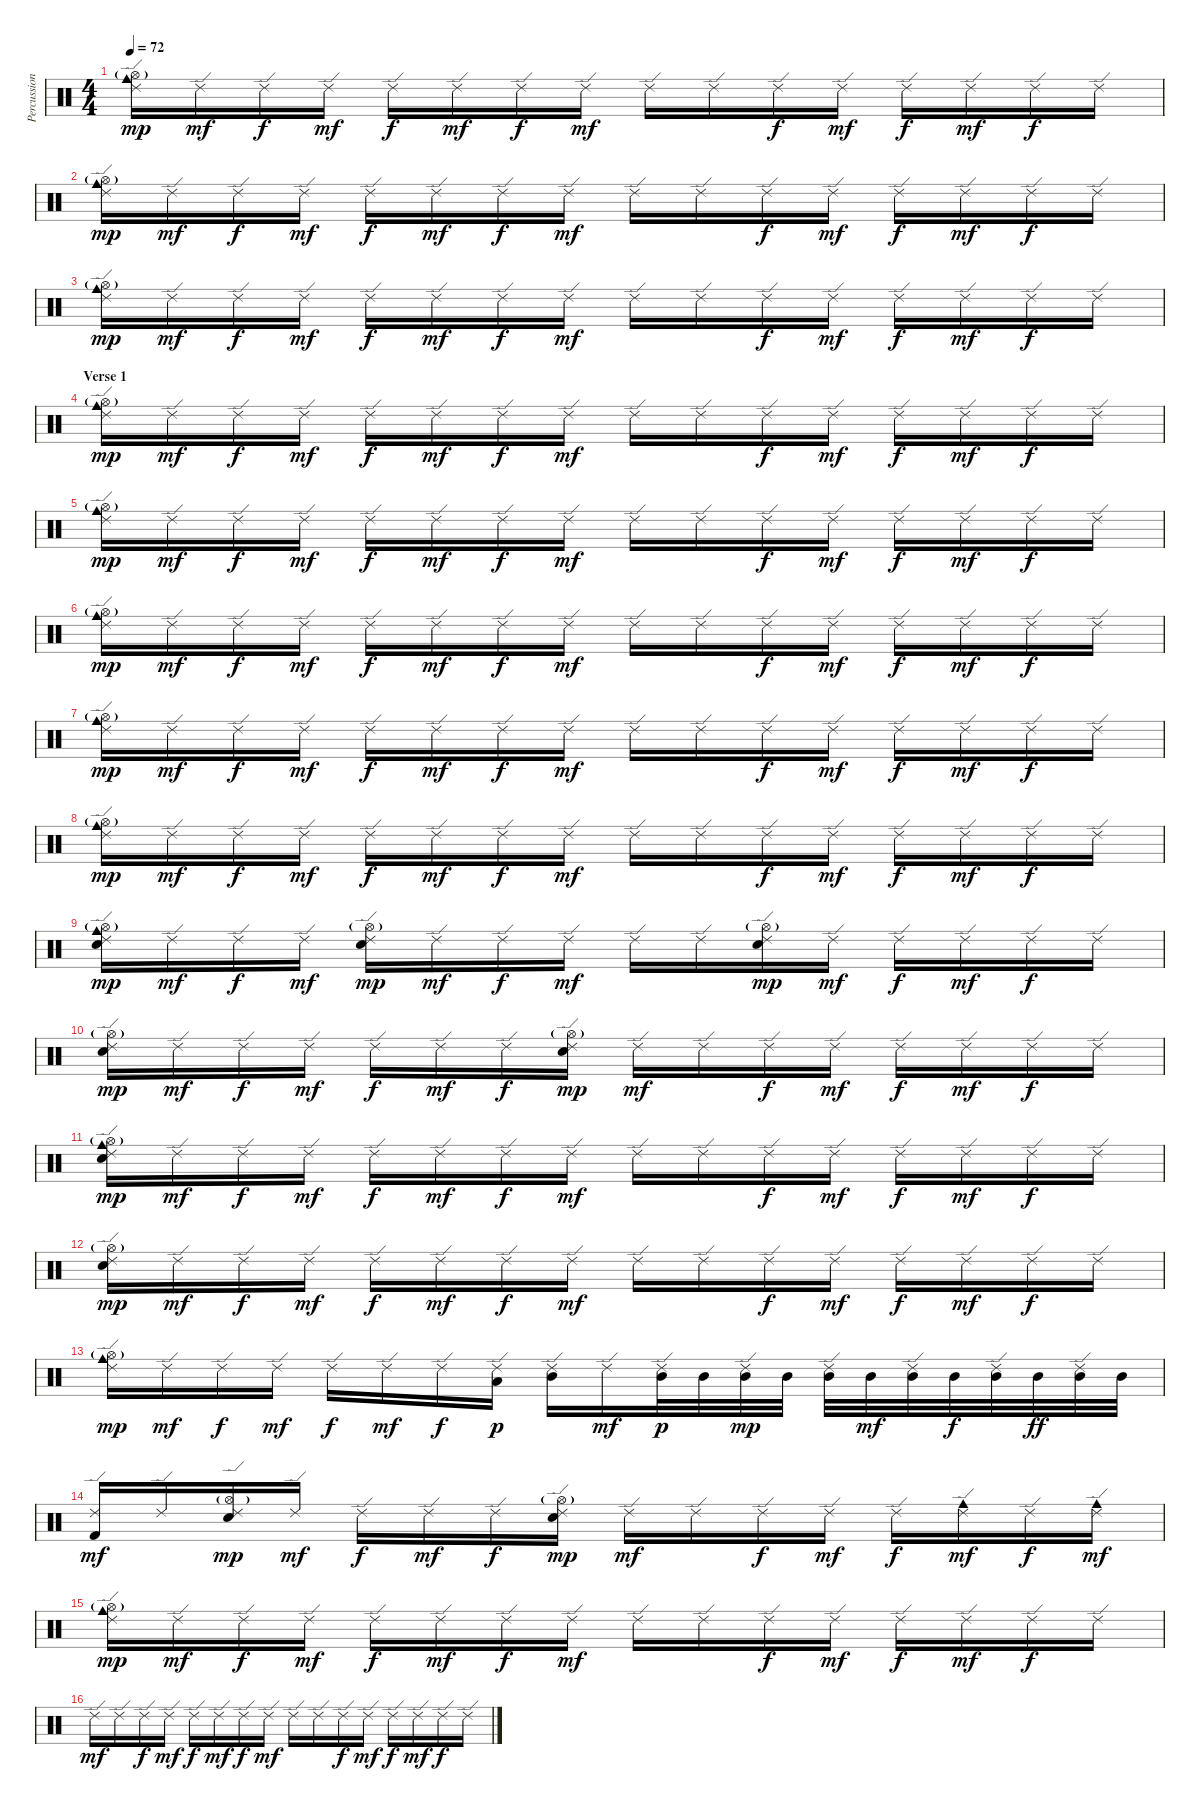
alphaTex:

\track ("Percussion" "Percussion") {instrument percussion}
\staff {score}
\articulation defaults
\ts (4 4)
\tempo 72
\clef neutral
\ks c
("Ride (edge) 2" "Hi-Hat (open)"{g} "Cowbell medium (hit)").16{dy mp} "Ride (edge) 2".16{dy mf} "Ride (edge) 2".16{dy f} "Ride (edge) 2".16{dy mf} "Ride (edge) 2".16{dy f} "Ride (edge) 2".16{dy mf} "Ride (edge) 2".16{dy f} "Ride (edge) 2".16{dy mf} "Ride (edge) 2".16 "Ride (edge) 2".16 "Ride (edge) 2".16{dy f} "Ride (edge) 2".16{dy mf} "Ride (edge) 2".16{dy f} "Ride (edge) 2".16{dy mf} "Ride (edge) 2".16{dy f} "Ride (edge) 2".16 |
("Ride (edge) 2" "Hi-Hat (open)"{g} "Cowbell medium (hit)").16{dy mp} "Ride (edge) 2".16{dy mf} "Ride (edge) 2".16{dy f} "Ride (edge) 2".16{dy mf} "Ride (edge) 2".16{dy f} "Ride (edge) 2".16{dy mf} "Ride (edge) 2".16{dy f} "Ride (edge) 2".16{dy mf} "Ride (edge) 2".16 "Ride (edge) 2".16 "Ride (edge) 2".16{dy f} "Ride (edge) 2".16{dy mf} "Ride (edge) 2".16{dy f} "Ride (edge) 2".16{dy mf} "Ride (edge) 2".16{dy f} "Ride (edge) 2".16 |
("Ride (edge) 2" "Hi-Hat (open)"{g} "Cowbell medium (hit)").16{dy mp} "Ride (edge) 2".16{dy mf} "Ride (edge) 2".16{dy f} "Ride (edge) 2".16{dy mf} "Ride (edge) 2".16{dy f} "Ride (edge) 2".16{dy mf} "Ride (edge) 2".16{dy f} "Ride (edge) 2".16{dy mf} "Ride (edge) 2".16 "Ride (edge) 2".16 "Ride (edge) 2".16{dy f} "Ride (edge) 2".16{dy mf} "Ride (edge) 2".16{dy f} "Ride (edge) 2".16{dy mf} "Ride (edge) 2".16{dy f} "Ride (edge) 2".16 |
\section ("" "Verse 1")
("Ride (edge) 2" "Hi-Hat (open)"{g} "Cowbell medium (hit)").16{dy mp} "Ride (edge) 2".16{dy mf} "Ride (edge) 2".16{dy f} "Ride (edge) 2".16{dy mf} "Ride (edge) 2".16{dy f} "Ride (edge) 2".16{dy mf} "Ride (edge) 2".16{dy f} "Ride (edge) 2".16{dy mf} "Ride (edge) 2".16 "Ride (edge) 2".16 "Ride (edge) 2".16{dy f} "Ride (edge) 2".16{dy mf} "Ride (edge) 2".16{dy f} "Ride (edge) 2".16{dy mf} "Ride (edge) 2".16{dy f} "Ride (edge) 2".16 |
("Ride (edge) 2" "Hi-Hat (open)"{g} "Cowbell medium (hit)").16{dy mp} "Ride (edge) 2".16{dy mf} "Ride (edge) 2".16{dy f} "Ride (edge) 2".16{dy mf} "Ride (edge) 2".16{dy f} "Ride (edge) 2".16{dy mf} "Ride (edge) 2".16{dy f} "Ride (edge) 2".16{dy mf} "Ride (edge) 2".16 "Ride (edge) 2".16 "Ride (edge) 2".16{dy f} "Ride (edge) 2".16{dy mf} "Ride (edge) 2".16{dy f} "Ride (edge) 2".16{dy mf} "Ride (edge) 2".16{dy f} "Ride (edge) 2".16 |
("Ride (edge) 2" "Hi-Hat (open)"{g} "Cowbell medium (hit)").16{dy mp} "Ride (edge) 2".16{dy mf} "Ride (edge) 2".16{dy f} "Ride (edge) 2".16{dy mf} "Ride (edge) 2".16{dy f} "Ride (edge) 2".16{dy mf} "Ride (edge) 2".16{dy f} "Ride (edge) 2".16{dy mf} "Ride (edge) 2".16 "Ride (edge) 2".16 "Ride (edge) 2".16{dy f} "Ride (edge) 2".16{dy mf} "Ride (edge) 2".16{dy f} "Ride (edge) 2".16{dy mf} "Ride (edge) 2".16{dy f} "Ride (edge) 2".16 |
("Ride (edge) 2" "Hi-Hat (open)"{g} "Cowbell medium (hit)").16{dy mp} "Ride (edge) 2".16{dy mf} "Ride (edge) 2".16{dy f} "Ride (edge) 2".16{dy mf} "Ride (edge) 2".16{dy f} "Ride (edge) 2".16{dy mf} "Ride (edge) 2".16{dy f} "Ride (edge) 2".16{dy mf} "Ride (edge) 2".16 "Ride (edge) 2".16 "Ride (edge) 2".16{dy f} "Ride (edge) 2".16{dy mf} "Ride (edge) 2".16{dy f} "Ride (edge) 2".16{dy mf} "Ride (edge) 2".16{dy f} "Ride (edge) 2".16 |
("Ride (edge) 2" "Hi-Hat (open)"{g} "Cowbell medium (hit)").16{dy mp} "Ride (edge) 2".16{dy mf} "Ride (edge) 2".16{dy f} "Ride (edge) 2".16{dy mf} "Ride (edge) 2".16{dy f} "Ride (edge) 2".16{dy mf} "Ride (edge) 2".16{dy f} "Ride (edge) 2".16{dy mf} "Ride (edge) 2".16 "Ride (edge) 2".16 "Ride (edge) 2".16{dy f} "Ride (edge) 2".16{dy mf} "Ride (edge) 2".16{dy f} "Ride (edge) 2".16{dy mf} "Ride (edge) 2".16{dy f} "Ride (edge) 2".16 |
("Ride (edge) 2" "Hi-Hat (open)"{g} "Cowbell medium (hit)" "Electric Snare (hit)").16{dy mp} "Ride (edge) 2".16{dy mf} "Ride (edge) 2".16{dy f} "Ride (edge) 2".16{dy mf} ("Ride (edge) 2" "Hi-Hat (open)"{g} "Electric Snare (hit)").16{dy mp} "Ride (edge) 2".16{dy mf} "Ride (edge) 2".16{dy f} "Ride (edge) 2".16{dy mf} "Ride (edge) 2".16 "Ride (edge) 2".16 ("Ride (edge) 2" "Hi-Hat (open)"{g} "Electric Snare (hit)").16{dy mp} "Ride (edge) 2".16{dy mf} "Ride (edge) 2".16{dy f} "Ride (edge) 2".16{dy mf} "Ride (edge) 2".16{dy f} "Ride (edge) 2".16 |
("Ride (edge) 2" "Hi-Hat (open)"{g} "Electric Snare (hit)").16{dy mp} "Ride (edge) 2".16{dy mf} "Ride (edge) 2".16{dy f} "Ride (edge) 2".16{dy mf} "Ride (edge) 2".16{dy f} "Ride (edge) 2".16{dy mf} "Ride (edge) 2".16{dy f} ("Ride (edge) 2" "Hi-Hat (open)"{g} "Electric Snare (hit)").16{dy mp} "Ride (edge) 2".16{dy mf} "Ride (edge) 2".16 "Ride (edge) 2".16{dy f} "Ride (edge) 2".16{dy mf} "Ride (edge) 2".16{dy f} "Ride (edge) 2".16{dy mf} "Ride (edge) 2".16{dy f} "Ride (edge) 2".16 |
("Ride (edge) 2" "Hi-Hat (open)"{g} "Cowbell medium (hit)" "Electric Snare (hit)").16{dy mp} "Ride (edge) 2".16{dy mf} "Ride (edge) 2".16{dy f} "Ride (edge) 2".16{dy mf} "Ride (edge) 2".16{dy f} "Ride (edge) 2".16{dy mf} "Ride (edge) 2".16{dy f} "Ride (edge) 2".16{dy mf} "Ride (edge) 2".16 "Ride (edge) 2".16 "Ride (edge) 2".16{dy f} "Ride (edge) 2".16{dy mf} "Ride (edge) 2".16{dy f} "Ride (edge) 2".16{dy mf} "Ride (edge) 2".16{dy f} "Ride (edge) 2".16 |
("Ride (edge) 2" "Hi-Hat (open)"{g} "Electric Snare (hit)").16{dy mp} "Ride (edge) 2".16{dy mf} "Ride (edge) 2".16{dy f} "Ride (edge) 2".16{dy mf} "Ride (edge) 2".16{dy f} "Ride (edge) 2".16{dy mf} "Ride (edge) 2".16{dy f} "Ride (edge) 2".16{dy mf} "Ride (edge) 2".16 "Ride (edge) 2".16 "Ride (edge) 2".16{dy f} "Ride (edge) 2".16{dy mf} "Ride (edge) 2".16{dy f} "Ride (edge) 2".16{dy mf} "Ride (edge) 2".16{dy f} "Ride (edge) 2".16 |
("Ride (edge) 2" "Hi-Hat (open)"{g} "Cowbell medium (hit)").16{dy mp} "Ride (edge) 2".16{dy mf} "Ride (edge) 2".16{dy f} "Ride (edge) 2".16{dy mf} "Ride (edge) 2".16{dy f} "Ride (edge) 2".16{dy mf} "Ride (edge) 2".16{dy f} ("Ride (edge) 2" "Low Tom (hit)").16{dy p} ("Ride (edge) 2" "Mid Tom (hit)").16 "Ride (edge) 2".16{dy mf} ("Ride (edge) 2" "Mid Tom (hit)").32{dy p} "Mid Tom (hit)".32 ("Ride (edge) 2" "Mid Tom (hit)").32{dy mp} "Mid Tom (hit)".32 ("Ride (edge) 2" "Mid Tom (hit)").32 "Mid Tom (hit)".32{dy mf} ("Ride (edge) 2" "Mid Tom (hit)").32 "Mid Tom (hit)".32{dy f} ("Ride (edge) 2" "Mid Tom (hit)").32 "Mid Tom (hit)".32{dy ff} ("Ride (edge) 2" "Mid Tom (hit)").32 "Mid Tom (hit)".32 |
("Ride (edge) 2" "Kick (hit) 2").16{dy mf} "Ride (edge) 2".16 ("Ride (edge) 2" "Hi-Hat (open)"{g} "Electric Snare (hit)").16{dy mp} "Ride (edge) 2".16{dy mf} "Ride (edge) 2".16{dy f} "Ride (edge) 2".16{dy mf} "Ride (edge) 2".16{dy f} ("Ride (edge) 2" "Hi-Hat (open)"{g} "Electric Snare (hit)").16{dy mp} "Ride (edge) 2".16{dy mf} "Ride (edge) 2".16 "Ride (edge) 2".16{dy f} "Ride (edge) 2".16{dy mf} "Ride (edge) 2".16{dy f} ("Ride (edge) 2" "Cowbell medium (hit)").16{dy mf} "Ride (edge) 2".16{dy f} ("Ride (edge) 2" "Cowbell medium (hit)").16{dy mf} |
("Ride (edge) 2" "Hi-Hat (open)"{g} "Cowbell medium (hit)").16{dy mp} "Ride (edge) 2".16{dy mf} "Ride (edge) 2".16{dy f} "Ride (edge) 2".16{dy mf} "Ride (edge) 2".16{dy f} "Ride (edge) 2".16{dy mf} "Ride (edge) 2".16{dy f} "Ride (edge) 2".16{dy mf} "Ride (edge) 2".16 "Ride (edge) 2".16 "Ride (edge) 2".16{dy f} "Ride (edge) 2".16{dy mf} "Ride (edge) 2".16{dy f} "Ride (edge) 2".16{dy mf} "Ride (edge) 2".16{dy f} "Ride (edge) 2".16 |
"Ride (edge) 2".16{dy mf} "Ride (edge) 2".16 "Ride (edge) 2".16{dy f} "Ride (edge) 2".16{dy mf} "Ride (edge) 2".16{dy f} "Ride (edge) 2".16{dy mf} "Ride (edge) 2".16{dy f} "Ride (edge) 2".16{dy mf} "Ride (edge) 2".16 "Ride (edge) 2".16 "Ride (edge) 2".16{dy f} "Ride (edge) 2".16{dy mf} "Ride (edge) 2".16{dy f} "Ride (edge) 2".16{dy mf} "Ride (edge) 2".16{dy f} "Ride (edge) 2".16
